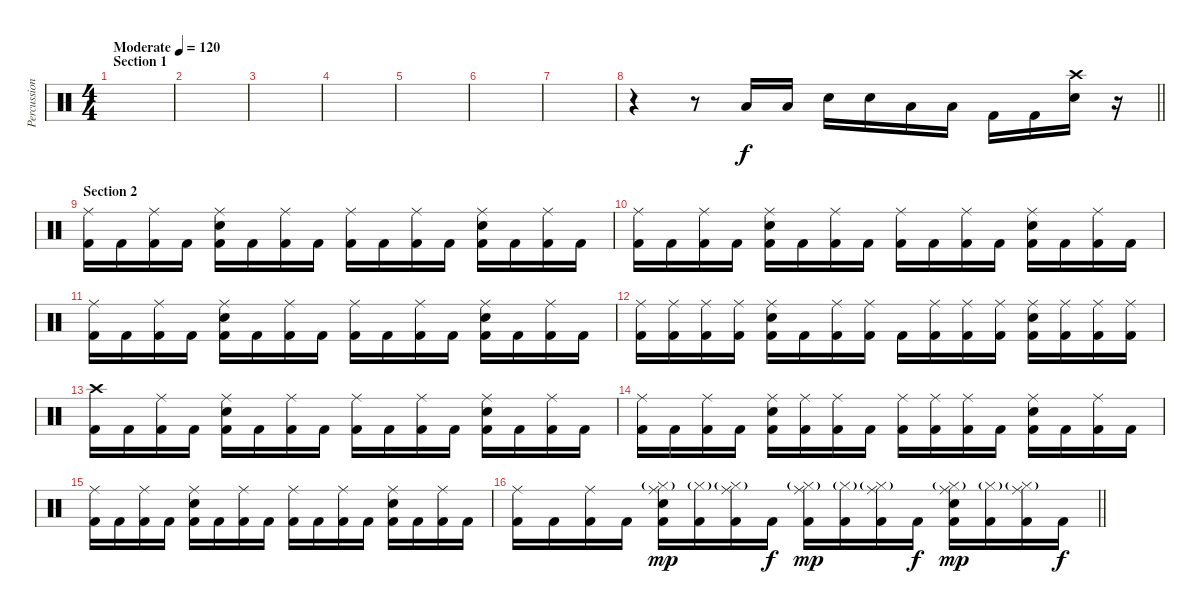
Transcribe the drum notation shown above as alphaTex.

\track ("Percussion" "Percussion") {instrument percussion}
\staff {score}
\articulation defaults
\ts (4 4)
\section ("" "Section 1")
\tempo (120 "Moderate")
\clef neutral
\ks c
|
|
|
|
|
|
|
\barLineRight lightlight
r.4 r.8 "Low Tom (hit)".16 "Low Tom (hit)".16 "Snare (hit) 2".16 "Snare (hit) 2".16 "Low Tom (hit)".16 "Low Tom (hit)".16 "Kick (hit) 2".16 "Kick (hit) 2".16 ("Crash high (hit)" "Electric Snare (hit)").16 r.16 |
\section ("" "Section 2")
("Ride (middle)" "Kick (hit) 2").16 "Kick (hit) 2".16 ("Ride (middle)" "Kick (hit) 2").16 "Kick (hit) 2".16 ("Ride (middle)" "Electric Snare (hit)" "Kick (hit) 2").16 "Kick (hit) 2".16 ("Ride (middle)" "Kick (hit) 2").16 "Kick (hit) 2".16 ("Ride (middle)" "Kick (hit) 2").16 "Kick (hit) 2".16 ("Ride (middle)" "Kick (hit) 2").16 "Kick (hit) 2".16 ("Ride (middle)" "Electric Snare (hit)" "Kick (hit) 2").16 "Kick (hit) 2".16 ("Ride (middle)" "Kick (hit) 2").16 "Kick (hit) 2".16 |
("Ride (middle)" "Kick (hit) 2").16 "Kick (hit) 2".16 ("Ride (middle)" "Kick (hit) 2").16 "Kick (hit) 2".16 ("Ride (middle)" "Electric Snare (hit)" "Kick (hit) 2").16 "Kick (hit) 2".16 ("Ride (middle)" "Kick (hit) 2").16 "Kick (hit) 2".16 ("Ride (middle)" "Kick (hit) 2").16 "Kick (hit) 2".16 ("Ride (middle)" "Kick (hit) 2").16 "Kick (hit) 2".16 ("Ride (middle)" "Electric Snare (hit)" "Kick (hit) 2").16 "Kick (hit) 2".16 ("Ride (middle)" "Kick (hit) 2").16 "Kick (hit) 2".16 |
("Ride (middle)" "Kick (hit) 2").16 "Kick (hit) 2".16 ("Ride (middle)" "Kick (hit) 2").16 "Kick (hit) 2".16 ("Ride (middle)" "Electric Snare (hit)" "Kick (hit) 2").16 "Kick (hit) 2".16 ("Ride (middle)" "Kick (hit) 2").16 "Kick (hit) 2".16 ("Ride (middle)" "Kick (hit) 2").16 "Kick (hit) 2".16 ("Ride (middle)" "Kick (hit) 2").16 "Kick (hit) 2".16 ("Ride (middle)" "Electric Snare (hit)" "Kick (hit) 2").16 "Kick (hit) 2".16 ("Ride (middle)" "Kick (hit) 2").16 "Kick (hit) 2".16 |
("Ride (middle)" "Kick (hit) 2").16 ("Ride (middle)" "Kick (hit) 2").16 ("Ride (middle)" "Kick (hit) 2").16 ("Ride (middle)" "Kick (hit) 2").16 ("Ride (middle)" "Electric Snare (hit)" "Kick (hit) 2").16 "Kick (hit) 2".16 ("Ride (middle)" "Kick (hit) 2").16 ("Ride (middle)" "Kick (hit) 2").16 "Kick (hit) 2".16 ("Ride (middle)" "Kick (hit) 2").16 ("Ride (middle)" "Kick (hit) 2").16 ("Ride (middle)" "Kick (hit) 2").16 ("Ride (middle)" "Electric Snare (hit)" "Kick (hit) 2").16 ("Ride (middle)" "Kick (hit) 2").16 ("Ride (middle)" "Kick (hit) 2").16 ("Ride (middle)" "Kick (hit) 2").16 |
("Crash high (hit)" "Kick (hit) 2").16 "Kick (hit) 2".16 ("Ride (middle)" "Kick (hit) 2").16 "Kick (hit) 2".16 ("Ride (middle)" "Electric Snare (hit)" "Kick (hit) 2").16 "Kick (hit) 2".16 ("Ride (middle)" "Kick (hit) 2").16 "Kick (hit) 2".16 ("Ride (middle)" "Kick (hit) 2").16 "Kick (hit) 2".16 ("Ride (middle)" "Kick (hit) 2").16 "Kick (hit) 2".16 ("Ride (middle)" "Electric Snare (hit)" "Kick (hit) 2").16 "Kick (hit) 2".16 ("Ride (middle)" "Kick (hit) 2").16 "Kick (hit) 2".16 |
("Ride (middle)" "Kick (hit) 2").16 "Kick (hit) 2".16 ("Ride (middle)" "Kick (hit) 2").16 "Kick (hit) 2".16 ("Ride (middle)" "Electric Snare (hit)" "Kick (hit) 2").16 ("Ride (middle)" "Kick (hit) 2").16 ("Ride (middle)" "Kick (hit) 2").16 "Kick (hit) 2".16 ("Ride (middle)" "Kick (hit) 2").16 ("Ride (middle)" "Kick (hit) 2").16 ("Ride (middle)" "Kick (hit) 2").16 "Kick (hit) 2".16 ("Ride (middle)" "Electric Snare (hit)" "Kick (hit) 2").16 "Kick (hit) 2".16 ("Ride (middle)" "Kick (hit) 2").16 "Kick (hit) 2".16 |
("Ride (middle)" "Kick (hit) 2").16 "Kick (hit) 2".16 ("Ride (middle)" "Kick (hit) 2").16 "Kick (hit) 2".16 ("Ride (middle)" "Electric Snare (hit)" "Kick (hit) 2").16 "Kick (hit) 2".16 ("Ride (middle)" "Kick (hit) 2").16 "Kick (hit) 2".16 ("Ride (middle)" "Kick (hit) 2").16 "Kick (hit) 2".16 ("Ride (middle)" "Kick (hit) 2").16 "Kick (hit) 2".16 ("Ride (middle)" "Electric Snare (hit)" "Kick (hit) 2").16 "Kick (hit) 2".16 ("Ride (middle)" "Kick (hit) 2").16 "Kick (hit) 2".16 |
\barLineRight lightlight
("Ride (middle)" "Kick (hit) 2").16 "Kick (hit) 2".16 ("Ride (middle)" "Kick (hit) 2").16 "Kick (hit) 2".16 ("Ride (middle)" "Hi-Hat (closed)"{g} "Electric Snare (hit)" "Kick (hit) 2").16{dy mp} ("Hi-Hat (closed)"{g} "Kick (hit) 2").16 ("Ride (middle)" "Hi-Hat (closed)"{g} "Kick (hit) 2").16 "Kick (hit) 2".16{dy f} ("Ride (middle)" "Hi-Hat (closed)"{g} "Kick (hit) 2").16{dy mp} ("Hi-Hat (closed)"{g} "Kick (hit) 2").16 ("Ride (middle)" "Hi-Hat (closed)"{g} "Kick (hit) 2").16 "Kick (hit) 2".16{dy f} ("Ride (middle)" "Hi-Hat (closed)"{g} "Electric Snare (hit)" "Kick (hit) 2").16{dy mp} ("Hi-Hat (closed)"{g} "Kick (hit) 2").16 ("Ride (middle)" "Hi-Hat (closed)"{g} "Kick (hit) 2").16 "Kick (hit) 2".16{dy f}
